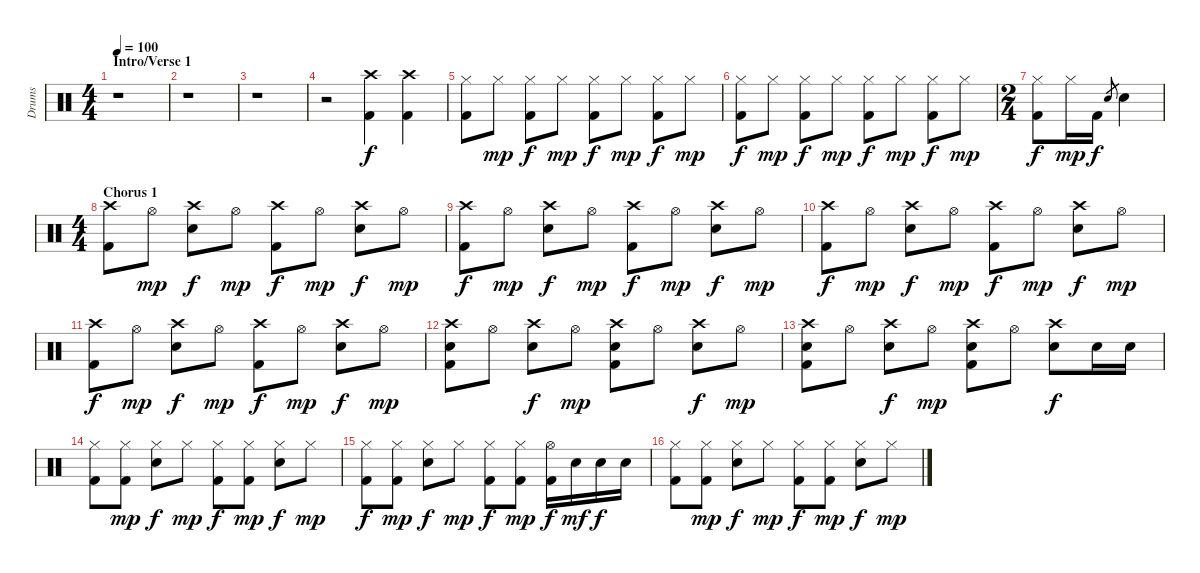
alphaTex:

\track ("Drums" "Drums") {instrument percussion}
\staff {score}
\articulation defaults
\ts (4 4)
\section ("" "Intro/Verse 1")
\tempo 100
\clef neutral
\ks c
r.1{dy f} |
r.1 |
r.1 |
r.2 ("Crash high (hit)" "Kick (hit) 2").4 ("Crash high (hit)" "Kick (hit) 2").4 |
("Hi-Hat (closed)" "Kick (hit) 2").8 "Hi-Hat (closed)".8{dy mp} ("Hi-Hat (closed)" "Kick (hit) 2").8{dy f} "Hi-Hat (closed)".8{dy mp} ("Hi-Hat (closed)" "Kick (hit) 2").8{dy f} "Hi-Hat (closed)".8{dy mp} ("Hi-Hat (closed)" "Kick (hit) 2").8{dy f} "Hi-Hat (closed)".8{dy mp} |
("Hi-Hat (closed)" "Kick (hit) 2").8{dy f} "Hi-Hat (closed)".8{dy mp} ("Hi-Hat (closed)" "Kick (hit) 2").8{dy f} "Hi-Hat (closed)".8{dy mp} ("Hi-Hat (closed)" "Kick (hit) 2").8{dy f} "Hi-Hat (closed)".8{dy mp} ("Hi-Hat (closed)" "Kick (hit) 2").8{dy f} "Hi-Hat (closed)".8{dy mp} |
\ts (2 4)
("Hi-Hat (closed)" "Kick (hit) 2").8{dy f} "Hi-Hat (closed)".16{dy mp} "Kick (hit) 2".16{dy f} "Snare (hit) 2".8{gr} "Snare (hit) 2".4 |
\ts (4 4)
\section ("" "Chorus 1")
("Crash high (hit)" "Kick (hit) 2").8 "Hi-Hat (open)".8{dy mp} ("Crash high (hit)" "Snare (hit) 2").8{dy f} "Hi-Hat (open)".8{dy mp} ("Crash high (hit)" "Kick (hit) 2").8{dy f} "Hi-Hat (open)".8{dy mp} ("Crash high (hit)" "Snare (hit) 2").8{dy f} "Hi-Hat (open)".8{dy mp} |
("Crash high (hit)" "Kick (hit) 2").8{dy f} "Hi-Hat (open)".8{dy mp} ("Crash high (hit)" "Snare (hit) 2").8{dy f} "Hi-Hat (open)".8{dy mp} ("Crash high (hit)" "Kick (hit) 2").8{dy f} "Hi-Hat (open)".8{dy mp} ("Crash high (hit)" "Snare (hit) 2").8{dy f} "Hi-Hat (open)".8{dy mp} |
("Crash high (hit)" "Kick (hit) 2").8{dy f} "Hi-Hat (open)".8{dy mp} ("Crash high (hit)" "Snare (hit) 2").8{dy f} "Hi-Hat (open)".8{dy mp} ("Crash high (hit)" "Kick (hit) 2").8{dy f} "Hi-Hat (open)".8{dy mp} ("Crash high (hit)" "Snare (hit) 2").8{dy f} "Hi-Hat (open)".8{dy mp} |
("Crash high (hit)" "Kick (hit) 2").8{dy f} "Hi-Hat (open)".8{dy mp} ("Crash high (hit)" "Snare (hit) 2").8{dy f} "Hi-Hat (open)".8{dy mp} ("Crash high (hit)" "Kick (hit) 2").8{dy f} "Hi-Hat (open)".8{dy mp} ("Crash high (hit)" "Snare (hit) 2").8{dy f} "Hi-Hat (open)".8{dy mp} |
("Crash high (hit)" "Snare (hit) 2" "Kick (hit) 2").8 "Hi-Hat (open)".8 ("Crash high (hit)" "Snare (hit) 2").8{dy f} "Hi-Hat (open)".8{dy mp} ("Crash high (hit)" "Snare (hit) 2" "Kick (hit) 2").8 "Hi-Hat (open)".8 ("Crash high (hit)" "Snare (hit) 2").8{dy f} "Hi-Hat (open)".8{dy mp} |
("Crash high (hit)" "Snare (hit) 2" "Kick (hit) 2").8 "Hi-Hat (open)".8 ("Crash high (hit)" "Snare (hit) 2").8{dy f} "Hi-Hat (open)".8{dy mp} ("Crash high (hit)" "Snare (hit) 2" "Kick (hit) 2").8 "Hi-Hat (open)".8 ("Crash high (hit)" "Snare (hit) 2").8{dy f} "Snare (hit) 2".16 "Snare (hit) 2".16 |
("Hi-Hat (closed)" "Kick (hit) 2").8 ("Hi-Hat (closed)" "Kick (hit) 2").8{dy mp} ("Hi-Hat (closed)" "Snare (hit) 2").8{dy f} "Hi-Hat (closed)".8{dy mp} ("Hi-Hat (closed)" "Kick (hit) 2").8{dy f} ("Hi-Hat (closed)" "Kick (hit) 2").8{dy mp} ("Hi-Hat (closed)" "Snare (hit) 2").8{dy f} "Hi-Hat (closed)".8{dy mp} |
("Hi-Hat (closed)" "Kick (hit) 2").8{dy f} ("Hi-Hat (closed)" "Kick (hit) 2").8{dy mp} ("Hi-Hat (closed)" "Snare (hit) 2").8{dy f} "Hi-Hat (closed)".8{dy mp} ("Hi-Hat (closed)" "Kick (hit) 2").8{dy f} ("Hi-Hat (closed)" "Kick (hit) 2").8{dy mp} ("Hi-Hat (open)" "Kick (hit) 2").16{dy f} "Snare (hit) 2".16{dy mf} "Snare (hit) 2".16{dy f} "Snare (hit) 2".16 |
("Hi-Hat (closed)" "Kick (hit) 2").8 ("Hi-Hat (closed)" "Kick (hit) 2").8{dy mp} ("Hi-Hat (closed)" "Snare (hit) 2").8{dy f} "Hi-Hat (closed)".8{dy mp} ("Hi-Hat (closed)" "Kick (hit) 2").8{dy f} ("Hi-Hat (closed)" "Kick (hit) 2").8{dy mp} ("Hi-Hat (closed)" "Snare (hit) 2").8{dy f} "Hi-Hat (closed)".8{dy mp}
